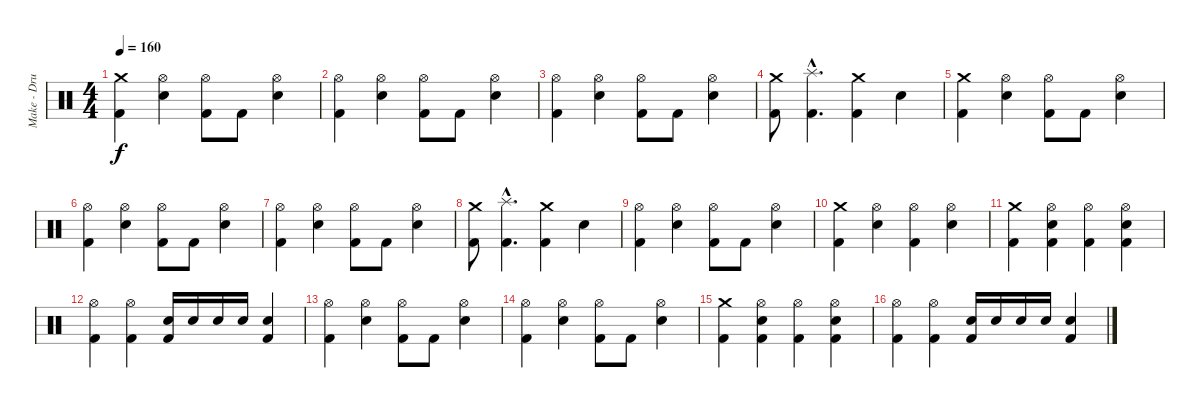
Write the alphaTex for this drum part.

\track ("Make - Drums" "Make - Dru") {instrument percussion}
\staff {score}
\articulation defaults
\ts (4 4)
\tempo 160
\clef neutral
\ks c
("Kick (hit) 2" "Crash medium (hit)").4{dy f} ("Snare (hit) 2" "Hi-Hat (open)").4 ("Kick (hit) 2" "Hi-Hat (open)").8 "Kick (hit) 2".8 ("Snare (hit) 2" "Hi-Hat (open)").4 |
("Kick (hit) 2" "Hi-Hat (open)").4 ("Snare (hit) 2" "Hi-Hat (open)").4 ("Kick (hit) 2" "Hi-Hat (open)").8 "Kick (hit) 2".8 ("Snare (hit) 2" "Hi-Hat (open)").4 |
("Kick (hit) 2" "Hi-Hat (open)").4 ("Snare (hit) 2" "Hi-Hat (open)").4 ("Kick (hit) 2" "Hi-Hat (open)").8 "Kick (hit) 2".8 ("Snare (hit) 2" "Hi-Hat (open)").4 |
("Kick (hit) 2" "Crash medium (hit)").8 ("Kick (hit) 2"{hac} "Splash (hit)"{hac}).4{d} ("Kick (hit) 2" "Crash medium (hit)").4 "Snare (hit) 2".4 |
("Kick (hit) 2" "Crash medium (hit)").4 ("Snare (hit) 2" "Hi-Hat (open)").4 ("Kick (hit) 2" "Hi-Hat (open)").8 "Kick (hit) 2".8 ("Snare (hit) 2" "Hi-Hat (open)").4 |
("Kick (hit) 2" "Hi-Hat (open)").4 ("Snare (hit) 2" "Hi-Hat (open)").4 ("Kick (hit) 2" "Hi-Hat (open)").8 "Kick (hit) 2".8 ("Snare (hit) 2" "Hi-Hat (open)").4 |
("Kick (hit) 2" "Hi-Hat (open)").4 ("Snare (hit) 2" "Hi-Hat (open)").4 ("Kick (hit) 2" "Hi-Hat (open)").8 "Kick (hit) 2".8 ("Snare (hit) 2" "Hi-Hat (open)").4 |
("Kick (hit) 2" "Crash medium (hit)").8 ("Kick (hit) 2"{hac} "Splash (hit)"{hac}).4{d} ("Kick (hit) 2" "Crash medium (hit)").4 "Snare (hit) 2".4 |
("Kick (hit) 2" "Hi-Hat (open)").4 ("Snare (hit) 2" "Hi-Hat (open)").4 ("Kick (hit) 2" "Hi-Hat (open)").8 "Kick (hit) 2".8 ("Snare (hit) 2" "Hi-Hat (open)").4 |
("Kick (hit) 2" "Crash medium (hit)").4 ("Snare (hit) 2" "Hi-Hat (open)").4 ("Kick (hit) 2" "Hi-Hat (open)").4 ("Snare (hit) 2" "Hi-Hat (open)").4 |
("Kick (hit) 2" "Crash medium (hit)").4 ("Snare (hit) 2" "Kick (hit) 2" "Hi-Hat (open)").4 ("Kick (hit) 2" "Hi-Hat (open)").4 ("Snare (hit) 2" "Kick (hit) 2" "Hi-Hat (open)").4 |
("Kick (hit) 2" "Hi-Hat (open)").4 ("Kick (hit) 2" "Hi-Hat (open)").4 ("Snare (hit) 2" "Kick (hit) 2").16 "Snare (hit) 2".16 "Snare (hit) 2".16 "Snare (hit) 2".16 ("Snare (hit) 2" "Kick (hit) 2").4 |
("Kick (hit) 2" "Hi-Hat (open)").4 ("Snare (hit) 2" "Hi-Hat (open)").4 ("Kick (hit) 2" "Hi-Hat (open)").8 "Kick (hit) 2".8 ("Snare (hit) 2" "Hi-Hat (open)").4 |
("Kick (hit) 2" "Hi-Hat (open)").4 ("Snare (hit) 2" "Hi-Hat (open)").4 ("Kick (hit) 2" "Hi-Hat (open)").8 "Kick (hit) 2".8 ("Snare (hit) 2" "Hi-Hat (open)").4 |
("Kick (hit) 2" "Crash medium (hit)").4 ("Snare (hit) 2" "Kick (hit) 2" "Hi-Hat (open)").4 ("Kick (hit) 2" "Hi-Hat (open)").4 ("Snare (hit) 2" "Kick (hit) 2" "Hi-Hat (open)").4 |
("Kick (hit) 2" "Hi-Hat (open)").4 ("Kick (hit) 2" "Hi-Hat (open)").4 ("Snare (hit) 2" "Kick (hit) 2").16 "Snare (hit) 2".16 "Snare (hit) 2".16 "Snare (hit) 2".16 ("Snare (hit) 2" "Kick (hit) 2").4
